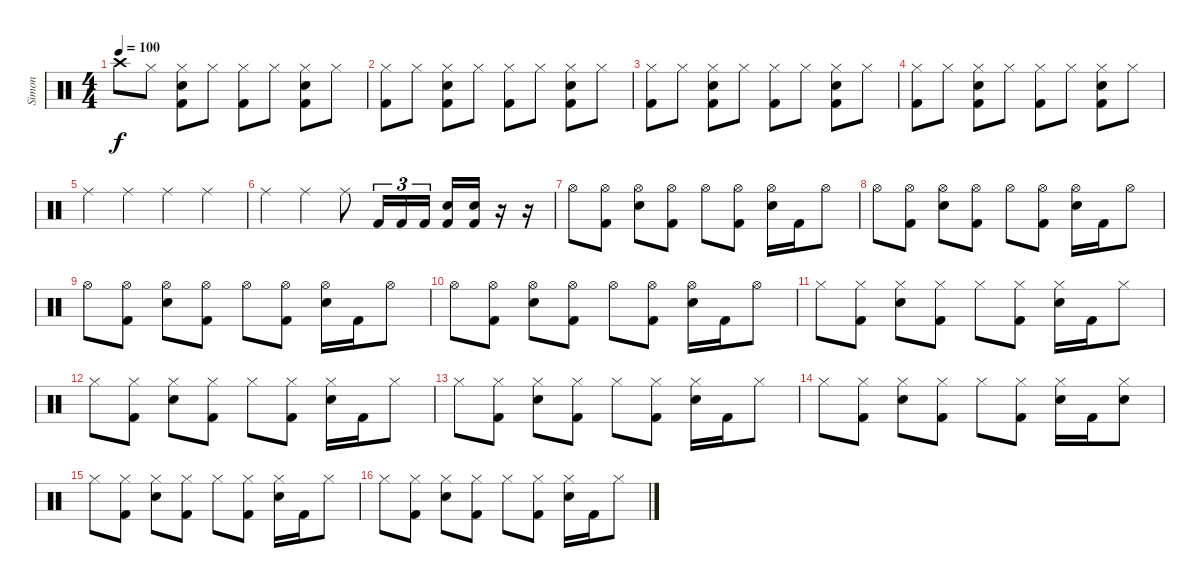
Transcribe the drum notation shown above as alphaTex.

\track ("Simon" "Simon") {instrument percussion}
\staff {score}
\articulation defaults
\ts (4 4)
\tempo 100
\clef neutral
\ks c "Crash high (hit)".8{dy f} "Hi-Hat (closed)".8
("Hi-Hat (closed)" "Snare (hit) 2" "Kick (hit) 2").8 "Hi-Hat (closed)".8 ("Hi-Hat (closed)" "Kick (hit) 2").8 "Hi-Hat (closed)".8 ("Hi-Hat (closed)" "Snare (hit) 2" "Kick (hit) 2").8 "Hi-Hat (closed)".8 |
("Hi-Hat (closed)" "Kick (hit) 2").8 "Hi-Hat (closed)".8 ("Hi-Hat (closed)" "Snare (hit) 2" "Kick (hit) 2").8 "Hi-Hat (closed)".8 ("Hi-Hat (closed)" "Kick (hit) 2").8 "Hi-Hat (closed)".8 ("Hi-Hat (closed)" "Snare (hit) 2" "Kick (hit) 2").8 "Hi-Hat (closed)".8 |
("Hi-Hat (closed)" "Kick (hit) 2").8 "Hi-Hat (closed)".8 ("Hi-Hat (closed)" "Snare (hit) 2" "Kick (hit) 2").8 "Hi-Hat (closed)".8 ("Hi-Hat (closed)" "Kick (hit) 2").8 "Hi-Hat (closed)".8 ("Hi-Hat (closed)" "Snare (hit) 2" "Kick (hit) 2").8 "Hi-Hat (closed)".8 |
("Hi-Hat (closed)" "Kick (hit) 2").8 "Hi-Hat (closed)".8 ("Hi-Hat (closed)" "Snare (hit) 2" "Kick (hit) 2").8 "Hi-Hat (closed)".8 ("Hi-Hat (closed)" "Kick (hit) 2").8 "Hi-Hat (closed)".8 ("Hi-Hat (closed)" "Snare (hit) 2" "Kick (hit) 2").8 "Hi-Hat (closed)".8 |
"Ride (middle)".4 "Ride (middle)".4 "Ride (middle)".4 "Ride (middle)".4 |
"Ride (middle)".4 "Ride (middle)".4 "Ride (middle)".8 "Kick (hit) 2".16{tu (3 2)} "Kick (hit) 2".16{tu (3 2)} "Kick (hit) 2".16{tu (3 2)} ("Snare (hit) 2" "Kick (hit) 2").16 ("Snare (hit) 2" "Kick (hit) 2").16 r.16 r.16 |
"Hi-Hat (open)".8 ("Hi-Hat (open)" "Kick (hit) 2").8 ("Hi-Hat (open)" "Snare (hit) 2").8 ("Hi-Hat (open)" "Kick (hit) 2").8 "Hi-Hat (open)".8 ("Hi-Hat (open)" "Kick (hit) 2").8 ("Hi-Hat (open)" "Snare (hit) 2").16 "Kick (hit) 2".16 "Hi-Hat (open)".8 |
"Hi-Hat (open)".8 ("Hi-Hat (open)" "Kick (hit) 2").8 ("Hi-Hat (open)" "Snare (hit) 2").8 ("Hi-Hat (open)" "Kick (hit) 2").8 "Hi-Hat (open)".8 ("Hi-Hat (open)" "Kick (hit) 2").8 ("Hi-Hat (open)" "Snare (hit) 2").16 "Kick (hit) 2".16 "Hi-Hat (open)".8 |
"Hi-Hat (open)".8 ("Hi-Hat (open)" "Kick (hit) 2").8 ("Hi-Hat (open)" "Snare (hit) 2").8 ("Hi-Hat (open)" "Kick (hit) 2").8 "Hi-Hat (open)".8 ("Hi-Hat (open)" "Kick (hit) 2").8 ("Hi-Hat (open)" "Snare (hit) 2").16 "Kick (hit) 2".16 "Hi-Hat (open)".8 |
"Hi-Hat (open)".8 ("Hi-Hat (open)" "Kick (hit) 2").8 ("Hi-Hat (open)" "Snare (hit) 2").8 ("Hi-Hat (open)" "Kick (hit) 2").8 "Hi-Hat (open)".8 ("Hi-Hat (open)" "Kick (hit) 2").8 ("Hi-Hat (open)" "Snare (hit) 2").16 "Kick (hit) 2".16 "Hi-Hat (open)".8 |
"Hi-Hat (closed)".8 ("Hi-Hat (closed)" "Kick (hit) 2").8 ("Hi-Hat (closed)" "Snare (hit) 2").8 ("Hi-Hat (closed)" "Kick (hit) 2").8 "Hi-Hat (closed)".8 ("Hi-Hat (closed)" "Kick (hit) 2").8 ("Hi-Hat (closed)" "Snare (hit) 2").16 "Kick (hit) 2".16 "Hi-Hat (closed)".8 |
"Hi-Hat (closed)".8 ("Hi-Hat (closed)" "Kick (hit) 2").8 ("Hi-Hat (closed)" "Snare (hit) 2").8 ("Hi-Hat (closed)" "Kick (hit) 2").8 "Hi-Hat (closed)".8 ("Hi-Hat (closed)" "Kick (hit) 2").8 ("Hi-Hat (closed)" "Snare (hit) 2").16 "Kick (hit) 2".16 "Hi-Hat (closed)".8 |
"Hi-Hat (closed)".8 ("Hi-Hat (closed)" "Kick (hit) 2").8 ("Hi-Hat (closed)" "Snare (hit) 2").8 ("Hi-Hat (closed)" "Kick (hit) 2").8 "Hi-Hat (closed)".8 ("Hi-Hat (closed)" "Kick (hit) 2").8 ("Hi-Hat (closed)" "Snare (hit) 2").16 "Kick (hit) 2".16 "Hi-Hat (closed)".8 |
"Hi-Hat (closed)".8 ("Hi-Hat (closed)" "Kick (hit) 2").8 ("Hi-Hat (closed)" "Snare (hit) 2").8 ("Hi-Hat (closed)" "Kick (hit) 2").8 "Hi-Hat (closed)".8 ("Hi-Hat (closed)" "Kick (hit) 2").8 ("Hi-Hat (closed)" "Snare (hit) 2").16 "Kick (hit) 2".16 ("Hi-Hat (closed)" "Snare (hit) 2").8 |
"Hi-Hat (closed)".8 ("Hi-Hat (closed)" "Kick (hit) 2").8 ("Hi-Hat (closed)" "Snare (hit) 2").8 ("Hi-Hat (closed)" "Kick (hit) 2").8 "Hi-Hat (closed)".8 ("Hi-Hat (closed)" "Kick (hit) 2").8 ("Hi-Hat (closed)" "Snare (hit) 2").16 "Kick (hit) 2".16 "Hi-Hat (closed)".8 |
"Hi-Hat (closed)".8 ("Hi-Hat (closed)" "Kick (hit) 2").8 ("Hi-Hat (closed)" "Snare (hit) 2").8 ("Hi-Hat (closed)" "Kick (hit) 2").8 "Hi-Hat (closed)".8 ("Hi-Hat (closed)" "Kick (hit) 2").8 ("Hi-Hat (closed)" "Snare (hit) 2").16 "Kick (hit) 2".16 "Hi-Hat (closed)".8
